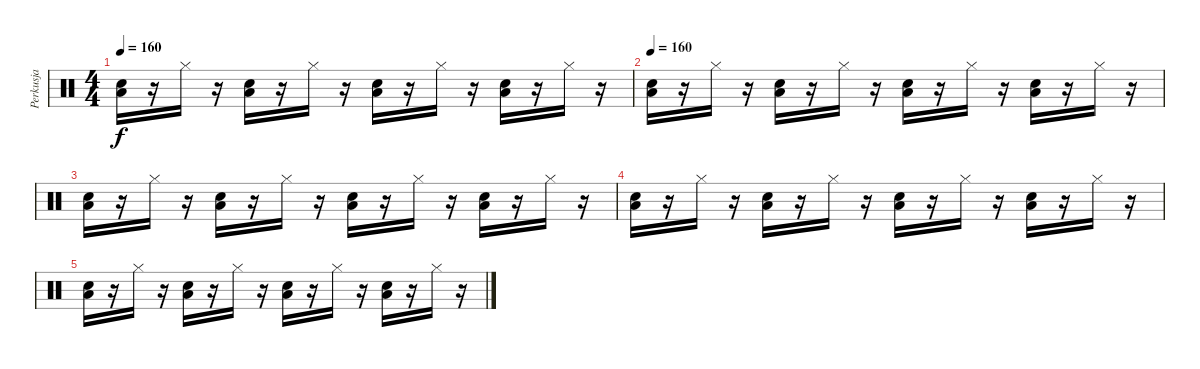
\track ("Perkusja" "Perkusja") {instrument percussion}
\staff {score}
\articulation defaults
\ts (4 4)
\tempo 160
\clef neutral
\ks c
("Snare (hit) 2" "Low Tom (hit)").16{dy f} r.16 "Hi-Hat (closed)".16 r.16 ("Snare (hit) 2" "Low Tom (hit)").16 r.16 "Hi-Hat (closed)".16 r.16 ("Snare (hit) 2" "Low Tom (hit)").16 r.16 "Hi-Hat (closed)".16 r.16 ("Snare (hit) 2" "Low Tom (hit)").16 r.16 "Hi-Hat (closed)".16 r.16 |
\tempo 160
("Snare (hit) 2" "Low Tom (hit)").16 r.16 "Hi-Hat (closed)".16 r.16 ("Snare (hit) 2" "Low Tom (hit)").16 r.16 "Hi-Hat (closed)".16 r.16 ("Snare (hit) 2" "Low Tom (hit)").16 r.16 "Hi-Hat (closed)".16 r.16 ("Snare (hit) 2" "Low Tom (hit)").16 r.16 "Hi-Hat (closed)".16 r.16 |
("Snare (hit) 2" "Low Tom (hit)").16 r.16 "Hi-Hat (closed)".16 r.16 ("Snare (hit) 2" "Low Tom (hit)").16 r.16 "Hi-Hat (closed)".16 r.16 ("Snare (hit) 2" "Low Tom (hit)").16 r.16 "Hi-Hat (closed)".16 r.16 ("Snare (hit) 2" "Low Tom (hit)").16 r.16 "Hi-Hat (closed)".16 r.16 |
("Snare (hit) 2" "Low Tom (hit)").16 r.16 "Hi-Hat (closed)".16 r.16 ("Snare (hit) 2" "Low Tom (hit)").16 r.16 "Hi-Hat (closed)".16 r.16 ("Snare (hit) 2" "Low Tom (hit)").16 r.16 "Hi-Hat (closed)".16 r.16 ("Snare (hit) 2" "Low Tom (hit)").16 r.16 "Hi-Hat (closed)".16 r.16 |
("Snare (hit) 2" "Low Tom (hit)").16 r.16 "Hi-Hat (closed)".16 r.16 ("Snare (hit) 2" "Low Tom (hit)").16 r.16 "Hi-Hat (closed)".16 r.16 ("Snare (hit) 2" "Low Tom (hit)").16 r.16 "Hi-Hat (closed)".16 r.16 ("Snare (hit) 2" "Low Tom (hit)").16 r.16 "Hi-Hat (closed)".16 r.16
